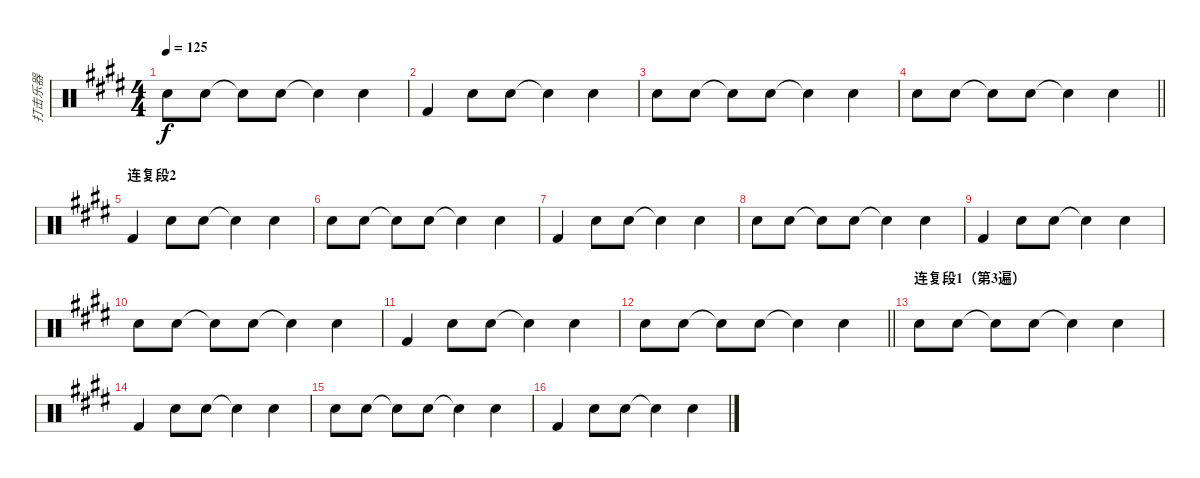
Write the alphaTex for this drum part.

\track ("打击乐器" "打击乐器") {instrument percussion}
\staff {score}
\articulation defaults
\ts (4 4)
\tempo 125
\clef neutral
\ks e "Snare (hit) 2".8{dy f} "Snare (hit) 2".8 "Snare (hit)"{t}.8 "Snare (hit) 2".8 "Snare (hit)"{t}.4 "Snare (hit) 2".4
|
"Kick (hit) 2".4 "Snare (hit) 2".8 "Snare (hit) 2".8 "Snare (hit)"{t}.4 "Snare (hit) 2".4 |
"Snare (hit) 2".8 "Snare (hit) 2".8 "Snare (hit)"{t}.8 "Snare (hit) 2".8 "Snare (hit)"{t}.4 "Snare (hit) 2".4 |
\barLineRight lightlight "Snare (hit) 2".8 "Snare (hit) 2".8 "Snare (hit)"{t}.8 "Snare (hit) 2".8 "Snare (hit)"{t}.4 "Snare (hit) 2".4
|
\section ("" "连复段2")
"Kick (hit) 2".4 "Snare (hit) 2".8 "Snare (hit) 2".8 "Snare (hit)"{t}.4 "Snare (hit) 2".4 |
"Snare (hit) 2".8 "Snare (hit) 2".8 "Snare (hit)"{t}.8 "Snare (hit) 2".8 "Snare (hit)"{t}.4 "Snare (hit) 2".4 |
"Kick (hit) 2".4 "Snare (hit) 2".8 "Snare (hit) 2".8 "Snare (hit)"{t}.4 "Snare (hit) 2".4 |
"Snare (hit) 2".8 "Snare (hit) 2".8 "Snare (hit)"{t}.8 "Snare (hit) 2".8 "Snare (hit)"{t}.4 "Snare (hit) 2".4 |
"Kick (hit) 2".4 "Snare (hit) 2".8 "Snare (hit) 2".8 "Snare (hit)"{t}.4 "Snare (hit) 2".4 |
"Snare (hit) 2".8 "Snare (hit) 2".8 "Snare (hit)"{t}.8 "Snare (hit) 2".8 "Snare (hit)"{t}.4 "Snare (hit) 2".4 |
"Kick (hit) 2".4 "Snare (hit) 2".8 "Snare (hit) 2".8 "Snare (hit)"{t}.4 "Snare (hit) 2".4 |
\barLineRight lightlight "Snare (hit) 2".8 "Snare (hit) 2".8 "Snare (hit)"{t}.8 "Snare (hit) 2".8 "Snare (hit)"{t}.4 "Snare (hit) 2".4
|
\section ("" "连复段1（第3遍）")
"Snare (hit) 2".8 "Snare (hit) 2".8 "Snare (hit)"{t}.8 "Snare (hit) 2".8 "Snare (hit)"{t}.4 "Snare (hit) 2".4 |
"Kick (hit) 2".4 "Snare (hit) 2".8 "Snare (hit) 2".8 "Snare (hit)"{t}.4 "Snare (hit) 2".4 |
"Snare (hit) 2".8 "Snare (hit) 2".8 "Snare (hit)"{t}.8 "Snare (hit) 2".8 "Snare (hit)"{t}.4 "Snare (hit) 2".4 |
"Kick (hit) 2".4 "Snare (hit) 2".8 "Snare (hit) 2".8 "Snare (hit)"{t}.4 "Snare (hit) 2".4
